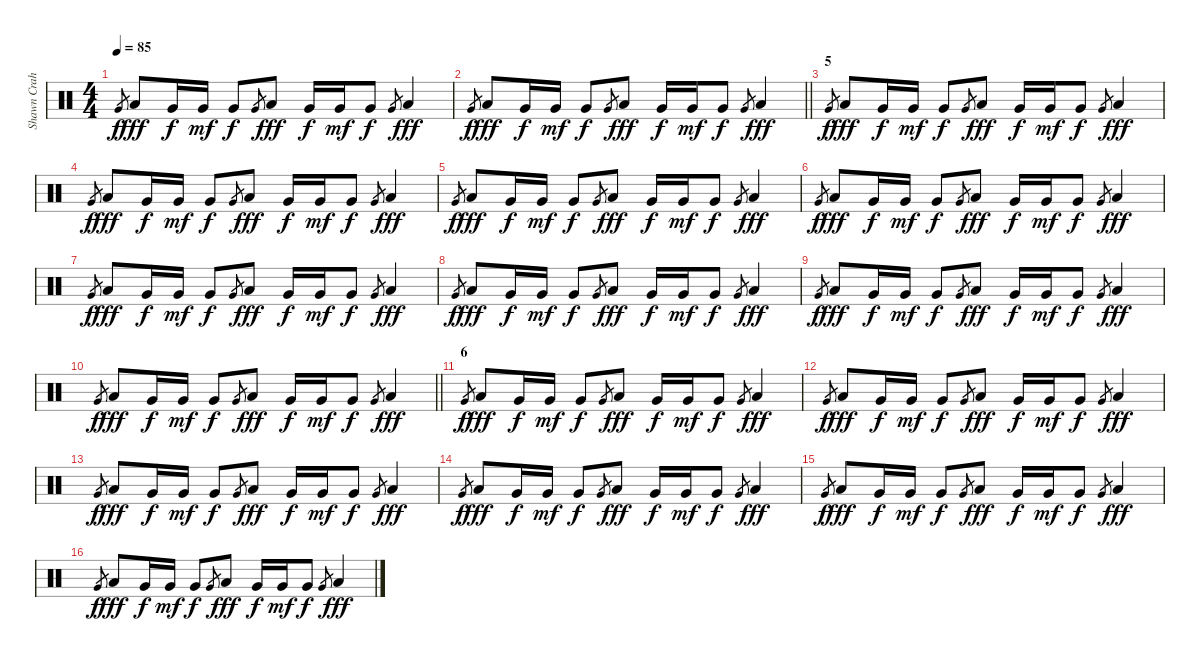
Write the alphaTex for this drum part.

\track ("Shawn Crahan" "Shawn Crah") {instrument percussion}
\staff {score}
\articulation defaults
\ts (4 4)
\tempo 85
\clef neutral
\ks c "Very Low Tom (hit)".8{gr dy f} "Low Tom (hit)".8{dy fff} "Very Low Tom (hit)".16{dy f} "Very Low Tom (hit)".16{dy mf} "Very Low Tom (hit)".8{dy f} "Very Low Tom (hit)".8{gr} "Low Tom (hit)".8{dy fff} "Very Low Tom (hit)".16{dy f} "Very Low Tom (hit)".16{dy mf} "Very Low Tom (hit)".8{dy f} "Very Low Tom (hit)".8{gr} "Low Tom (hit)".4{dy fff}
|
\barLineRight lightlight "Very Low Tom (hit)".8{gr dy f} "Low Tom (hit)".8{dy fff} "Very Low Tom (hit)".16{dy f} "Very Low Tom (hit)".16{dy mf} "Very Low Tom (hit)".8{dy f} "Very Low Tom (hit)".8{gr} "Low Tom (hit)".8{dy fff} "Very Low Tom (hit)".16{dy f} "Very Low Tom (hit)".16{dy mf} "Very Low Tom (hit)".8{dy f} "Very Low Tom (hit)".8{gr} "Low Tom (hit)".4{dy fff}
|
\section ("" "5")
"Very Low Tom (hit)".8{gr dy f} "Low Tom (hit)".8{dy fff} "Very Low Tom (hit)".16{dy f} "Very Low Tom (hit)".16{dy mf} "Very Low Tom (hit)".8{dy f} "Very Low Tom (hit)".8{gr} "Low Tom (hit)".8{dy fff} "Very Low Tom (hit)".16{dy f} "Very Low Tom (hit)".16{dy mf} "Very Low Tom (hit)".8{dy f} "Very Low Tom (hit)".8{gr} "Low Tom (hit)".4{dy fff} |
"Very Low Tom (hit)".8{gr dy f} "Low Tom (hit)".8{dy fff} "Very Low Tom (hit)".16{dy f} "Very Low Tom (hit)".16{dy mf} "Very Low Tom (hit)".8{dy f} "Very Low Tom (hit)".8{gr} "Low Tom (hit)".8{dy fff} "Very Low Tom (hit)".16{dy f} "Very Low Tom (hit)".16{dy mf} "Very Low Tom (hit)".8{dy f} "Very Low Tom (hit)".8{gr} "Low Tom (hit)".4{dy fff} |
"Very Low Tom (hit)".8{gr dy f} "Low Tom (hit)".8{dy fff} "Very Low Tom (hit)".16{dy f} "Very Low Tom (hit)".16{dy mf} "Very Low Tom (hit)".8{dy f} "Very Low Tom (hit)".8{gr} "Low Tom (hit)".8{dy fff} "Very Low Tom (hit)".16{dy f} "Very Low Tom (hit)".16{dy mf} "Very Low Tom (hit)".8{dy f} "Very Low Tom (hit)".8{gr} "Low Tom (hit)".4{dy fff} |
"Very Low Tom (hit)".8{gr dy f} "Low Tom (hit)".8{dy fff} "Very Low Tom (hit)".16{dy f} "Very Low Tom (hit)".16{dy mf} "Very Low Tom (hit)".8{dy f} "Very Low Tom (hit)".8{gr} "Low Tom (hit)".8{dy fff} "Very Low Tom (hit)".16{dy f} "Very Low Tom (hit)".16{dy mf} "Very Low Tom (hit)".8{dy f} "Very Low Tom (hit)".8{gr} "Low Tom (hit)".4{dy fff} |
"Very Low Tom (hit)".8{gr dy f} "Low Tom (hit)".8{dy fff} "Very Low Tom (hit)".16{dy f} "Very Low Tom (hit)".16{dy mf} "Very Low Tom (hit)".8{dy f} "Very Low Tom (hit)".8{gr} "Low Tom (hit)".8{dy fff} "Very Low Tom (hit)".16{dy f} "Very Low Tom (hit)".16{dy mf} "Very Low Tom (hit)".8{dy f} "Very Low Tom (hit)".8{gr} "Low Tom (hit)".4{dy fff} |
"Very Low Tom (hit)".8{gr dy f} "Low Tom (hit)".8{dy fff} "Very Low Tom (hit)".16{dy f} "Very Low Tom (hit)".16{dy mf} "Very Low Tom (hit)".8{dy f} "Very Low Tom (hit)".8{gr} "Low Tom (hit)".8{dy fff} "Very Low Tom (hit)".16{dy f} "Very Low Tom (hit)".16{dy mf} "Very Low Tom (hit)".8{dy f} "Very Low Tom (hit)".8{gr} "Low Tom (hit)".4{dy fff} |
"Very Low Tom (hit)".8{gr dy f} "Low Tom (hit)".8{dy fff} "Very Low Tom (hit)".16{dy f} "Very Low Tom (hit)".16{dy mf} "Very Low Tom (hit)".8{dy f} "Very Low Tom (hit)".8{gr} "Low Tom (hit)".8{dy fff} "Very Low Tom (hit)".16{dy f} "Very Low Tom (hit)".16{dy mf} "Very Low Tom (hit)".8{dy f} "Very Low Tom (hit)".8{gr} "Low Tom (hit)".4{dy fff} |
\barLineRight lightlight "Very Low Tom (hit)".8{gr dy f} "Low Tom (hit)".8{dy fff} "Very Low Tom (hit)".16{dy f} "Very Low Tom (hit)".16{dy mf} "Very Low Tom (hit)".8{dy f} "Very Low Tom (hit)".8{gr} "Low Tom (hit)".8{dy fff} "Very Low Tom (hit)".16{dy f} "Very Low Tom (hit)".16{dy mf} "Very Low Tom (hit)".8{dy f} "Very Low Tom (hit)".8{gr} "Low Tom (hit)".4{dy fff}
|
\section ("" "6")
"Very Low Tom (hit)".8{gr dy f} "Low Tom (hit)".8{dy fff} "Very Low Tom (hit)".16{dy f} "Very Low Tom (hit)".16{dy mf} "Very Low Tom (hit)".8{dy f} "Very Low Tom (hit)".8{gr} "Low Tom (hit)".8{dy fff} "Very Low Tom (hit)".16{dy f} "Very Low Tom (hit)".16{dy mf} "Very Low Tom (hit)".8{dy f} "Very Low Tom (hit)".8{gr} "Low Tom (hit)".4{dy fff} |
"Very Low Tom (hit)".8{gr dy f} "Low Tom (hit)".8{dy fff} "Very Low Tom (hit)".16{dy f} "Very Low Tom (hit)".16{dy mf} "Very Low Tom (hit)".8{dy f} "Very Low Tom (hit)".8{gr} "Low Tom (hit)".8{dy fff} "Very Low Tom (hit)".16{dy f} "Very Low Tom (hit)".16{dy mf} "Very Low Tom (hit)".8{dy f} "Very Low Tom (hit)".8{gr} "Low Tom (hit)".4{dy fff} |
"Very Low Tom (hit)".8{gr dy f} "Low Tom (hit)".8{dy fff} "Very Low Tom (hit)".16{dy f} "Very Low Tom (hit)".16{dy mf} "Very Low Tom (hit)".8{dy f} "Very Low Tom (hit)".8{gr} "Low Tom (hit)".8{dy fff} "Very Low Tom (hit)".16{dy f} "Very Low Tom (hit)".16{dy mf} "Very Low Tom (hit)".8{dy f} "Very Low Tom (hit)".8{gr} "Low Tom (hit)".4{dy fff} |
"Very Low Tom (hit)".8{gr dy f} "Low Tom (hit)".8{dy fff} "Very Low Tom (hit)".16{dy f} "Very Low Tom (hit)".16{dy mf} "Very Low Tom (hit)".8{dy f} "Very Low Tom (hit)".8{gr} "Low Tom (hit)".8{dy fff} "Very Low Tom (hit)".16{dy f} "Very Low Tom (hit)".16{dy mf} "Very Low Tom (hit)".8{dy f} "Very Low Tom (hit)".8{gr} "Low Tom (hit)".4{dy fff} |
"Very Low Tom (hit)".8{gr dy f} "Low Tom (hit)".8{dy fff} "Very Low Tom (hit)".16{dy f} "Very Low Tom (hit)".16{dy mf} "Very Low Tom (hit)".8{dy f} "Very Low Tom (hit)".8{gr} "Low Tom (hit)".8{dy fff} "Very Low Tom (hit)".16{dy f} "Very Low Tom (hit)".16{dy mf} "Very Low Tom (hit)".8{dy f} "Very Low Tom (hit)".8{gr} "Low Tom (hit)".4{dy fff} |
"Very Low Tom (hit)".8{gr dy f} "Low Tom (hit)".8{dy fff} "Very Low Tom (hit)".16{dy f} "Very Low Tom (hit)".16{dy mf} "Very Low Tom (hit)".8{dy f} "Very Low Tom (hit)".8{gr} "Low Tom (hit)".8{dy fff} "Very Low Tom (hit)".16{dy f} "Very Low Tom (hit)".16{dy mf} "Very Low Tom (hit)".8{dy f} "Very Low Tom (hit)".8{gr} "Low Tom (hit)".4{dy fff}
